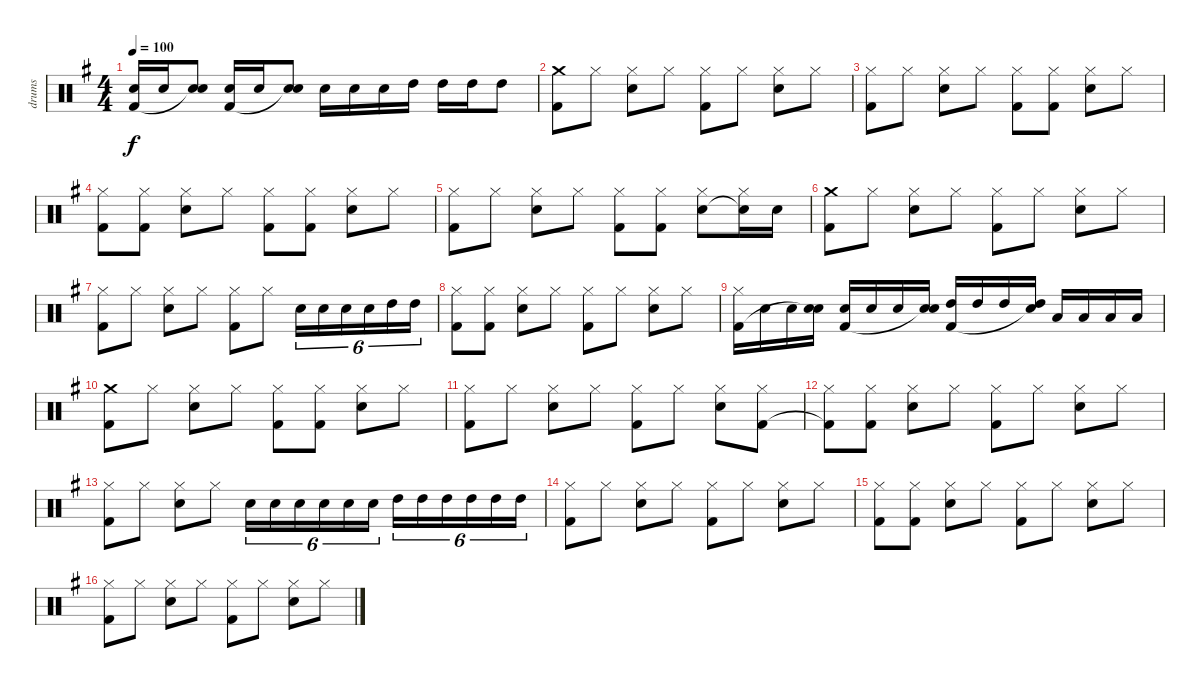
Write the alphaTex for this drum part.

\track ("drums" "drums") {instrument percussion}
\staff {score}
\articulation defaults
\ts (4 4)
\tempo 100
\clef neutral
\ks g
("Snare (hit) 2" "Kick (hit) 2").16{dy f} "Snare (hit) 2".16 ("Snare (hit) 2" "Snare (hit)"{t}).8 ("Snare (hit) 2" "Kick (hit) 2").16 "Snare (hit) 2".16 ("Snare (hit) 2" "Snare (hit)"{t}).8 "Snare (hit) 2".16 "Snare (hit) 2".16 "Snare (hit) 2".16 "High Tom (hit)".16 "High Tom (hit)".16 "High Tom (hit)".16 "High Tom (hit)".8 |
("Crash medium (hit)" "Kick (hit) 2").8 "Hi-Hat (closed)".8 ("Hi-Hat (closed)" "Snare (hit) 2").8 "Hi-Hat (closed)".8 ("Hi-Hat (closed)" "Kick (hit) 2").8 "Hi-Hat (closed)".8 ("Hi-Hat (closed)" "Snare (hit) 2").8 "Hi-Hat (closed)".8 |
("Hi-Hat (closed)" "Kick (hit) 2").8 "Hi-Hat (closed)".8 ("Hi-Hat (closed)" "Snare (hit) 2").8 "Hi-Hat (closed)".8 ("Hi-Hat (closed)" "Kick (hit) 2").8 ("Hi-Hat (closed)" "Kick (hit) 2").8 ("Hi-Hat (closed)" "Snare (hit) 2").8 "Hi-Hat (closed)".8 |
("Hi-Hat (closed)" "Kick (hit) 2").8 ("Hi-Hat (closed)" "Kick (hit) 2").8 ("Hi-Hat (closed)" "Snare (hit) 2").8 "Hi-Hat (closed)".8 ("Hi-Hat (closed)" "Kick (hit) 2").8 ("Hi-Hat (closed)" "Kick (hit) 2").8 ("Hi-Hat (closed)" "Snare (hit) 2").8 "Hi-Hat (closed)".8 |
("Hi-Hat (closed)" "Kick (hit) 2").8 "Hi-Hat (closed)".8 ("Hi-Hat (closed)" "Snare (hit) 2").8 "Hi-Hat (closed)".8 ("Hi-Hat (closed)" "Kick (hit) 2").8 ("Hi-Hat (closed)" "Kick (hit) 2").8 ("Hi-Hat (closed)" "Snare (hit) 2").8 ("Hi-Hat (closed)" "Snare (hit)"{t}).16 "Snare (hit) 2".16 |
("Crash medium (hit)" "Kick (hit) 2").8 "Hi-Hat (closed)".8 ("Hi-Hat (closed)" "Snare (hit) 2").8 "Hi-Hat (closed)".8 ("Hi-Hat (closed)" "Kick (hit) 2").8 "Hi-Hat (closed)".8 ("Hi-Hat (closed)" "Snare (hit) 2").8 "Hi-Hat (closed)".8 |
("Hi-Hat (closed)" "Kick (hit) 2").8 "Hi-Hat (closed)".8 ("Hi-Hat (closed)" "Snare (hit) 2").8 "Hi-Hat (closed)".8 ("Hi-Hat (closed)" "Kick (hit) 2").8 "Hi-Hat (closed)".8 "Snare (hit) 2".16{tu (6 4)} "Snare (hit) 2".16{tu (6 4)} "Snare (hit) 2".16{tu (6 4)} "Snare (hit) 2".16{tu (6 4)} "High Tom (hit)".16{tu (6 4)} "High Tom (hit)".16{tu (6 4)} |
("Hi-Hat (closed)" "Kick (hit) 2").8 ("Hi-Hat (closed)" "Kick (hit) 2").8 ("Hi-Hat (closed)" "Snare (hit) 2").8 "Hi-Hat (closed)".8 ("Hi-Hat (closed)" "Kick (hit) 2").8 "Hi-Hat (closed)".8 ("Hi-Hat (closed)" "Snare (hit) 2").8 "Hi-Hat (closed)".8 |
("Hi-Hat (closed)" "Kick (hit) 2").16 "Snare (hit) 2".16 "Snare (hit) 2".16 ("Snare (hit) 2" "Snare (hit)"{t}).16 ("Snare (hit) 2" "Kick (hit) 2").16 "Snare (hit) 2".16 "Snare (hit) 2".16 ("Snare (hit) 2" "Snare (hit)"{t}).16 ("High Tom (hit)" "Kick (hit) 2").16 "High Tom (hit)".16 "High Tom (hit)".16 ("High Tom (hit)" "Snare (hit)"{t}).16 "Low Tom (hit)".16 "Low Tom (hit)".16 "Low Tom (hit)".16 "Low Tom (hit)".16 |
("Crash medium (hit)" "Kick (hit) 2").8 "Hi-Hat (closed)".8 ("Hi-Hat (closed)" "Snare (hit) 2").8 "Hi-Hat (closed)".8 ("Hi-Hat (closed)" "Kick (hit) 2").8 ("Hi-Hat (closed)" "Kick (hit) 2").8 ("Hi-Hat (closed)" "Snare (hit) 2").8 "Hi-Hat (closed)".8 |
("Hi-Hat (closed)" "Kick (hit) 2").8 "Hi-Hat (closed)".8 ("Hi-Hat (closed)" "Snare (hit) 2").8 "Hi-Hat (closed)".8 ("Hi-Hat (closed)" "Kick (hit) 2").8 "Hi-Hat (closed)".8 ("Hi-Hat (closed)" "Snare (hit) 2").8 ("Hi-Hat (closed)" "Kick (hit) 2").8 |
("Hi-Hat (closed)" "Kick (hit) 2"{t}).8 ("Hi-Hat (closed)" "Kick (hit) 2").8 ("Hi-Hat (closed)" "Snare (hit) 2").8 "Hi-Hat (closed)".8 ("Hi-Hat (closed)" "Kick (hit) 2").8 "Hi-Hat (closed)".8 ("Hi-Hat (closed)" "Snare (hit) 2").8 "Hi-Hat (closed)".8 |
("Hi-Hat (closed)" "Kick (hit) 2").8 "Hi-Hat (closed)".8 ("Hi-Hat (closed)" "Snare (hit) 2").8 "Hi-Hat (closed)".8 "Snare (hit) 2".16{tu (6 4)} "Snare (hit) 2".16{tu (6 4)} "Snare (hit) 2".16{tu (6 4)} "Snare (hit) 2".16{tu (6 4)} "Snare (hit) 2".16{tu (6 4)} "Snare (hit) 2".16{tu (6 4)} "High Tom (hit)".16{tu (6 4)} "High Tom (hit)".16{tu (6 4)} "High Tom (hit)".16{tu (6 4)} "High Tom (hit)".16{tu (6 4)} "High Tom (hit)".16{tu (6 4)} "High Tom (hit)".16{tu (6 4)} |
("Hi-Hat (closed)" "Kick (hit) 2").8 "Hi-Hat (closed)".8 ("Hi-Hat (closed)" "Snare (hit) 2").8 "Hi-Hat (closed)".8 ("Hi-Hat (closed)" "Kick (hit) 2").8 "Hi-Hat (closed)".8 ("Hi-Hat (closed)" "Snare (hit) 2").8 "Hi-Hat (closed)".8 |
("Hi-Hat (closed)" "Kick (hit) 2").8 ("Hi-Hat (closed)" "Kick (hit) 2").8 ("Hi-Hat (closed)" "Snare (hit) 2").8 "Hi-Hat (closed)".8 ("Hi-Hat (closed)" "Kick (hit) 2").8 "Hi-Hat (closed)".8 ("Hi-Hat (closed)" "Snare (hit) 2").8 "Hi-Hat (closed)".8 |
("Hi-Hat (closed)" "Kick (hit) 2").8 "Hi-Hat (closed)".8 ("Hi-Hat (closed)" "Snare (hit) 2").8 "Hi-Hat (closed)".8 ("Hi-Hat (closed)" "Kick (hit) 2").8 "Hi-Hat (closed)".8 ("Hi-Hat (closed)" "Snare (hit) 2").8 "Hi-Hat (closed)".8
